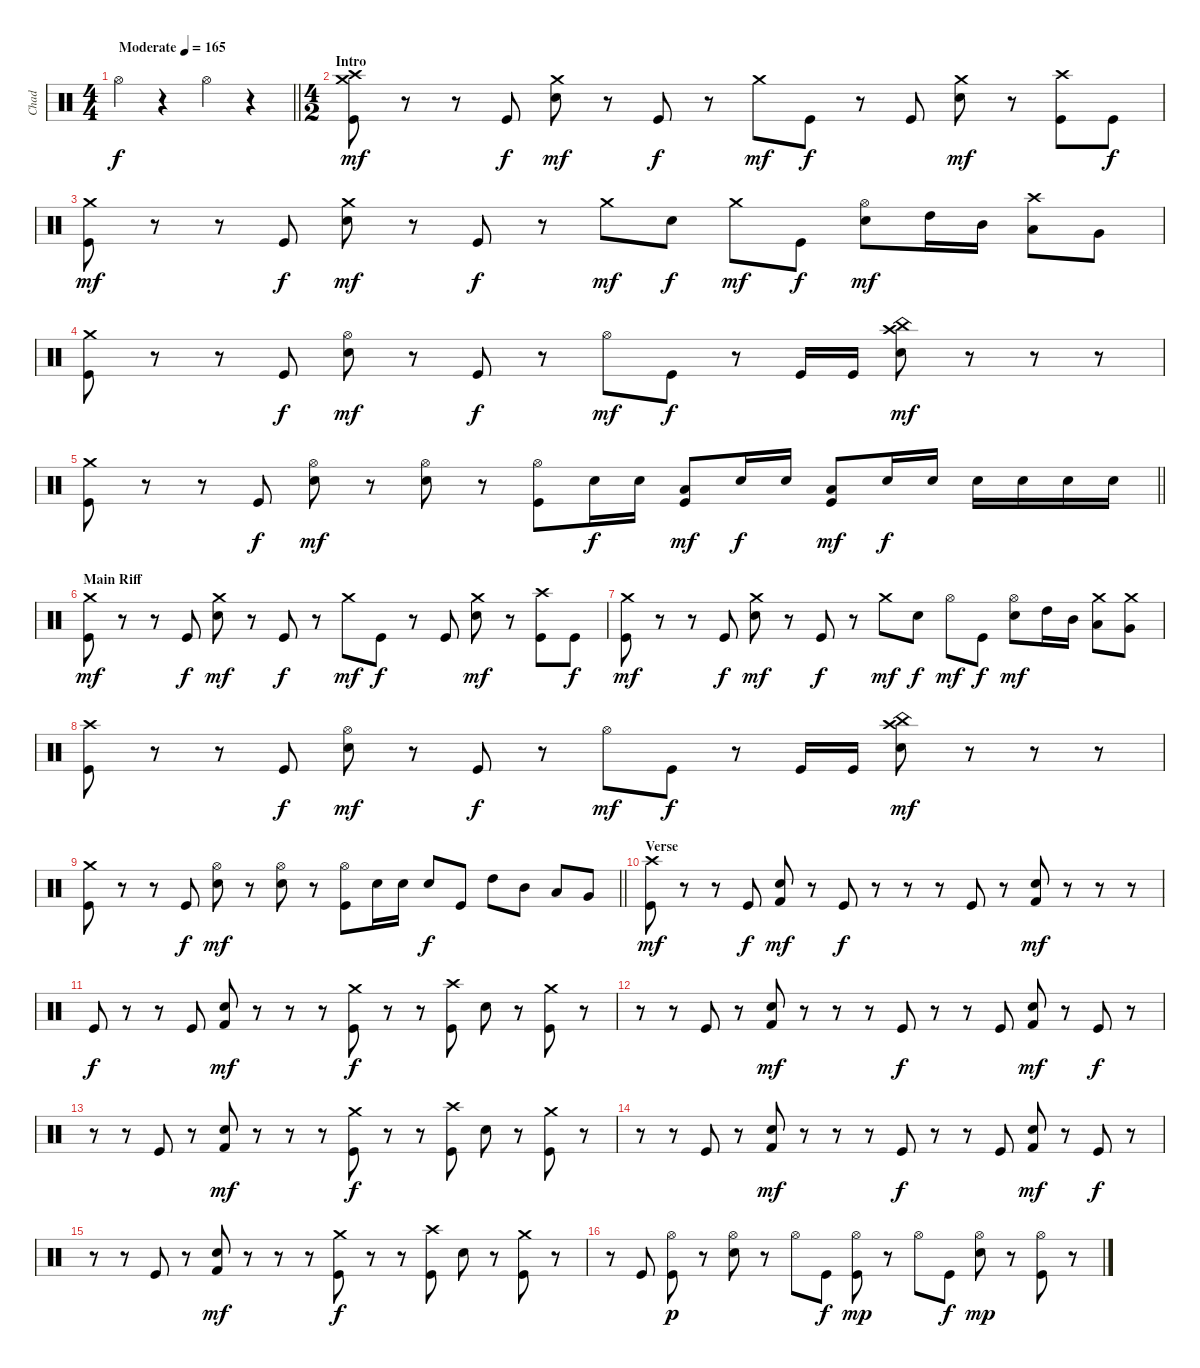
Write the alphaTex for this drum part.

\track ("Chad" "Chad") {instrument percussion}
\staff {score}
\articulation defaults
\ts (4 4)
\tempo (165 "Moderate")
\clef neutral
\barLineRight lightlight
\ks c "Hi-Hat (open)".4{dy f}
r.4 "Hi-Hat (open)".4 r.4 |
\ts (4 2)
\section ("" "Intro")
("Kick (hit)" "Crash medium (hit)" "Crash high (hit)").8{dy mf} r.8 r.8 "Kick (hit)".8{dy f} ("Snare (hit) 2" "Crash medium (hit)").8{dy mf} r.8 "Kick (hit)".8{dy f} r.8 "Crash medium (hit)".8{dy mf} "Kick (hit)".8{dy f} r.8 "Kick (hit)".8 ("Snare (hit) 2" "Crash medium (hit)").8{dy mf} r.8 ("Kick (hit)" "Crash high (hit)").8 "Kick (hit)".8{dy f} |
("Kick (hit)" "Crash medium (hit)").8{dy mf} r.8 r.8 "Kick (hit)".8{dy f} ("Snare (hit) 2" "Crash medium (hit)").8{dy mf} r.8 "Kick (hit)".8{dy f} r.8 "Crash medium (hit)".8{dy mf} "Snare (hit) 2".8{dy f} "Crash medium (hit)".8{dy mf} "Kick (hit)".8{dy f} ("Snare (hit) 2" "Hi-Hat (open)").8{dy mf} "High Tom (hit)".16 "Mid Tom (hit)".16 ("Low Tom (hit)" "Crash high (hit)").8 "Very Low Tom (hit)".8 |
("Kick (hit)" "Crash medium (hit)").8 r.8 r.8 "Kick (hit)".8{dy f} ("Snare (hit) 2" "Hi-Hat (open)").8{dy mf} r.8 "Kick (hit)".8{dy f} r.8 "Hi-Hat (open)".8{dy mf} "Kick (hit)".8{dy f} r.8 "Kick (hit)".16 "Kick (hit)".16 ("Snare (hit) 2" "China (hit)" "Crash high (hit)").8{dy mf} r.8 r.8 r.8 |
\barLineRight lightlight
("Kick (hit)" "Crash medium (hit)").8 r.8 r.8 "Kick (hit)".8{dy f} ("Snare (hit) 2" "Hi-Hat (open)").8{dy mf} r.8 ("Snare (hit) 2" "Hi-Hat (open)").8 r.8 ("Kick (hit)" "Hi-Hat (open)").8 "Snare (hit) 2".16{dy f} "Snare (hit) 2".16 ("Kick (hit)" "Low Tom (hit)").8{dy mf} "Snare (hit) 2".16{dy f} "Snare (hit) 2".16 ("Kick (hit)" "Low Tom (hit)").8{dy mf} "Snare (hit) 2".16{dy f} "Snare (hit) 2".16 "Snare (hit) 2".16 "Snare (hit) 2".16 "Snare (hit) 2".16 "Snare (hit) 2".16 |
\section ("" "Main Riff")
("Kick (hit)" "Crash medium (hit)").8{dy mf} r.8 r.8 "Kick (hit)".8{dy f} ("Snare (hit) 2" "Crash medium (hit)").8{dy mf} r.8 "Kick (hit)".8{dy f} r.8 "Crash medium (hit)".8{dy mf} "Kick (hit)".8{dy f} r.8 "Kick (hit)".8 ("Snare (hit) 2" "Crash medium (hit)").8{dy mf} r.8 ("Kick (hit)" "Crash high (hit)").8 "Kick (hit)".8{dy f} |
("Kick (hit)" "Crash medium (hit)").8{dy mf} r.8 r.8 "Kick (hit)".8{dy f} ("Snare (hit) 2" "Crash medium (hit)").8{dy mf} r.8 "Kick (hit)".8{dy f} r.8 "Crash medium (hit)".8{dy mf} "Snare (hit) 2".8{dy f} "Hi-Hat (open)".8{dy mf} "Kick (hit)".8{dy f} ("Snare (hit) 2" "Hi-Hat (open)").8{dy mf} "High Tom (hit)".16 "Mid Tom (hit)".16 ("Low Tom (hit)" "Crash medium (hit)").8 ("Very Low Tom (hit)" "Crash medium (hit)").8 |
("Kick (hit)" "Crash high (hit)").8 r.8 r.8 "Kick (hit)".8{dy f} ("Snare (hit) 2" "Hi-Hat (open)").8{dy mf} r.8 "Kick (hit)".8{dy f} r.8 "Hi-Hat (open)".8{dy mf} "Kick (hit)".8{dy f} r.8 "Kick (hit)".16 "Kick (hit)".16 ("Snare (hit) 2" "China (hit)" "Crash high (hit)").8{dy mf} r.8 r.8 r.8 |
\barLineRight lightlight
("Kick (hit)" "Crash medium (hit)").8 r.8 r.8 "Kick (hit)".8{dy f} ("Snare (hit) 2" "Hi-Hat (open)").8{dy mf} r.8 ("Snare (hit) 2" "Hi-Hat (open)").8 r.8 ("Kick (hit)" "Hi-Hat (open)").8 "Snare (hit) 2".16 "Snare (hit) 2".16 "Snare (hit) 2".8{dy f} "Kick (hit)".8 "High Tom (hit)".8 "Mid Tom (hit)".8 "Low Tom (hit)".8 "Very Low Tom (hit)".8 |
\section ("" "Verse")
("Kick (hit)" "Crash high (hit)").8{dy mf} r.8 r.8 "Kick (hit)".8{dy f} ("Snare (hit) 2" "Kick (hit) 2").8{dy mf} r.8 "Kick (hit)".8{dy f} r.8 r.8 r.8 "Kick (hit)".8 r.8 ("Snare (hit) 2" "Kick (hit) 2").8{dy mf} r.8 r.8 r.8 |
"Kick (hit)".8{dy f} r.8 r.8 "Kick (hit)".8 ("Snare (hit) 2" "Kick (hit) 2").8{dy mf} r.8 r.8 r.8 ("Kick (hit)" "Crash medium (hit)").8{dy f} r.8 r.8 ("Kick (hit)" "Crash high (hit)").8 "Snare (hit) 2".8 r.8 ("Kick (hit)" "Crash medium (hit)").8 r.8 |
r.8 r.8 "Kick (hit)".8 r.8 ("Snare (hit) 2" "Kick (hit) 2").8{dy mf} r.8 r.8 r.8 "Kick (hit)".8{dy f} r.8 r.8 "Kick (hit)".8 ("Snare (hit) 2" "Kick (hit) 2").8{dy mf} r.8 "Kick (hit)".8{dy f} r.8 |
r.8 r.8 "Kick (hit)".8 r.8 ("Snare (hit) 2" "Kick (hit) 2").8{dy mf} r.8 r.8 r.8 ("Kick (hit)" "Crash medium (hit)").8{dy f} r.8 r.8 ("Kick (hit)" "Crash high (hit)").8 "Snare (hit) 2".8 r.8 ("Kick (hit)" "Crash medium (hit)").8 r.8 |
r.8 r.8 "Kick (hit)".8 r.8 ("Snare (hit) 2" "Kick (hit) 2").8{dy mf} r.8 r.8 r.8 "Kick (hit)".8{dy f} r.8 r.8 "Kick (hit)".8 ("Snare (hit) 2" "Kick (hit) 2").8{dy mf} r.8 "Kick (hit)".8{dy f} r.8 |
r.8 r.8 "Kick (hit)".8 r.8 ("Snare (hit) 2" "Kick (hit) 2").8{dy mf} r.8 r.8 r.8 ("Kick (hit)" "Crash medium (hit)").8{dy f} r.8 r.8 ("Kick (hit)" "Crash high (hit)").8 "Snare (hit) 2".8 r.8 ("Kick (hit)" "Crash medium (hit)").8 r.8 |
r.8 "Kick (hit)".8 ("Kick (hit)" "Hi-Hat (open)").8{dy p} r.8 ("Snare (hit) 2" "Hi-Hat (open)").8 r.8 "Hi-Hat (open)".8 "Kick (hit)".8{dy f} ("Kick (hit)" "Hi-Hat (open)").8{dy mp} r.8 "Hi-Hat (open)".8 "Kick (hit)".8{dy f} ("Snare (hit) 2" "Hi-Hat (open)").8{dy mp} r.8 ("Kick (hit)" "Hi-Hat (open)").8 r.8
